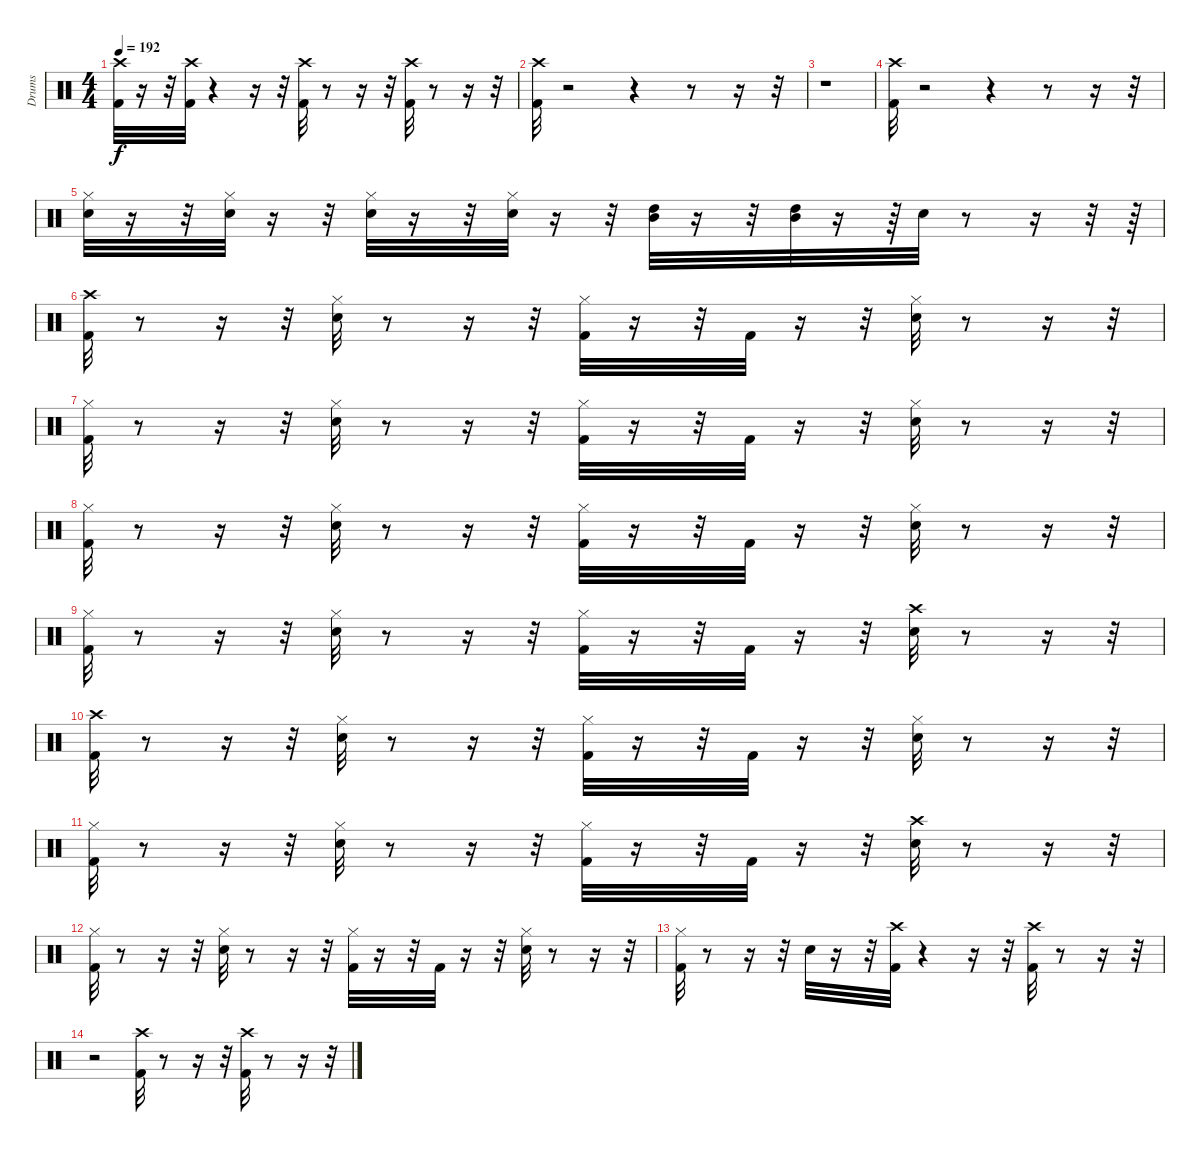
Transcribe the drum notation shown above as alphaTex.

\track ("Drums" "Drums") {instrument percussion}
\staff {score}
\articulation defaults
\ts (4 4)
\tempo 192
\clef neutral
\ks c
("Kick (hit) 2" "Crash high (hit)").32{dy f} r.16 r.32 ("Kick (hit) 2" "Crash high (hit)").32 r.4 r.16 r.32 ("Kick (hit) 2" "Crash high (hit)").32 r.8 r.16 r.32 ("Kick (hit) 2" "Crash high (hit)").32 r.8 r.16 r.32 |
("Crash high (hit)" "Kick (hit) 2").32 r.2 r.4 r.8 r.16 r.32 |
r.1 |
("Kick (hit) 2" "Crash high (hit)").32 r.2 r.4 r.8 r.16 r.32 |
("Hi-Hat (closed)" "Snare (hit) 2").32 r.16 r.32 ("Hi-Hat (closed)" "Snare (hit) 2").32 r.16 r.32 ("Hi-Hat (closed)" "Snare (hit) 2").32 r.16 r.32 ("Hi-Hat (closed)" "Snare (hit) 2").32 r.16 r.32 ("High Tom (hit)" "Mid Tom (hit)").32 r.16 r.32 ("Mid Tom (hit)" "High Tom (hit)").32 r.16 r.64 "Snare (hit) 2".32 r.8 r.16 r.32 r.64 |
("Kick (hit) 2" "Crash high (hit)").32 r.8 r.16 r.32 ("Hi-Hat (closed)" "Snare (hit) 2").32 r.8 r.16 r.32 ("Hi-Hat (closed)" "Kick (hit) 2").32 r.16 r.32 "Kick (hit) 2".32 r.16 r.32 ("Hi-Hat (closed)" "Snare (hit) 2").32 r.8 r.16 r.32 |
("Kick (hit) 2" "Hi-Hat (closed)").32 r.8 r.16 r.32 ("Snare (hit) 2" "Hi-Hat (closed)").32 r.8 r.16 r.32 ("Kick (hit) 2" "Hi-Hat (closed)").32 r.16 r.32 "Kick (hit) 2".32 r.16 r.32 ("Snare (hit) 2" "Hi-Hat (closed)").32 r.8 r.16 r.32 |
("Kick (hit) 2" "Hi-Hat (closed)").32 r.8 r.16 r.32 ("Snare (hit) 2" "Hi-Hat (closed)").32 r.8 r.16 r.32 ("Kick (hit) 2" "Hi-Hat (closed)").32 r.16 r.32 "Kick (hit) 2".32 r.16 r.32 ("Snare (hit) 2" "Hi-Hat (closed)").32 r.8 r.16 r.32 |
("Kick (hit) 2" "Hi-Hat (closed)").32 r.8 r.16 r.32 ("Snare (hit) 2" "Hi-Hat (closed)").32 r.8 r.16 r.32 ("Kick (hit) 2" "Hi-Hat (closed)").32 r.16 r.32 "Kick (hit) 2".32 r.16 r.32 ("Snare (hit) 2" "Crash high (hit)").32 r.8 r.16 r.32 |
("Kick (hit) 2" "Crash high (hit)").32 r.8 r.16 r.32 ("Hi-Hat (closed)" "Snare (hit) 2").32 r.8 r.16 r.32 ("Hi-Hat (closed)" "Kick (hit) 2").32 r.16 r.32 "Kick (hit) 2".32 r.16 r.32 ("Snare (hit) 2" "Hi-Hat (closed)").32 r.8 r.16 r.32 |
("Kick (hit) 2" "Hi-Hat (closed)").32 r.8 r.16 r.32 ("Snare (hit) 2" "Hi-Hat (closed)").32 r.8 r.16 r.32 ("Kick (hit) 2" "Hi-Hat (closed)").32 r.16 r.32 "Kick (hit) 2".32 r.16 r.32 ("Snare (hit) 2" "Crash high (hit)").32 r.8 r.16 r.32 |
("Kick (hit) 2" "Hi-Hat (closed)").32 r.8 r.16 r.32 ("Snare (hit) 2" "Hi-Hat (closed)").32 r.8 r.16 r.32 ("Kick (hit) 2" "Hi-Hat (closed)").32 r.16 r.32 "Kick (hit) 2".32 r.16 r.32 ("Snare (hit) 2" "Hi-Hat (closed)").32 r.8 r.16 r.32 |
("Kick (hit) 2" "Hi-Hat (closed)").32 r.8 r.16 r.32 "Snare (hit) 2".32 r.16 r.32 ("Crash high (hit)" "Kick (hit) 2").32 r.4 r.16 r.32 ("Crash high (hit)" "Kick (hit) 2").32 r.8 r.16 r.32 |
r.2 ("Kick (hit) 2" "Crash high (hit)").32 r.8 r.16 r.32 ("Kick (hit) 2" "Crash high (hit)").32 r.8 r.16 r.32
